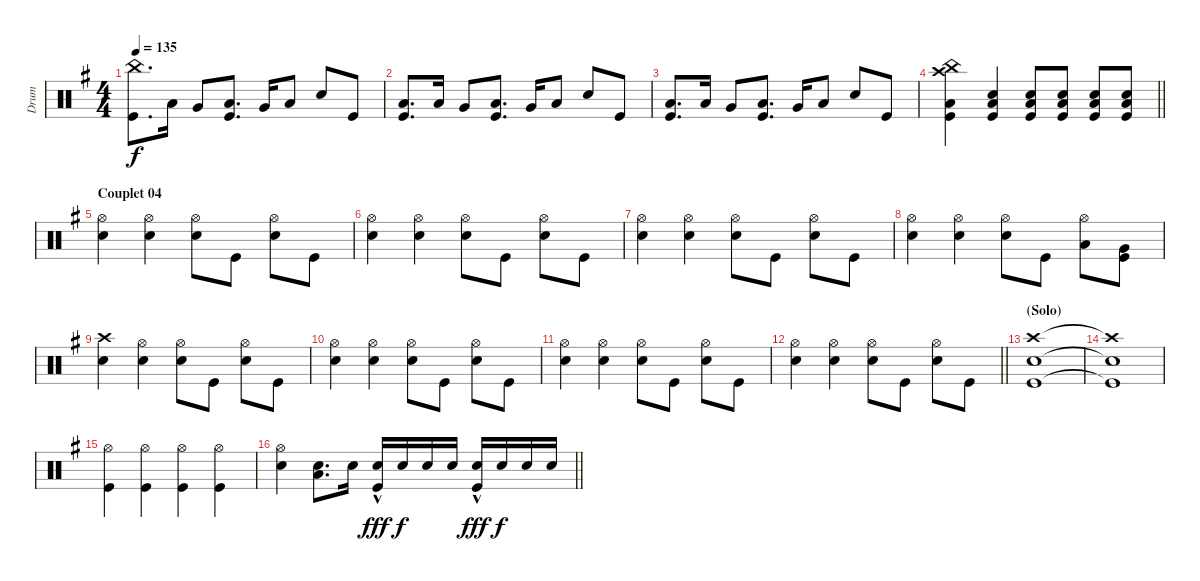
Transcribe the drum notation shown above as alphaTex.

\track ("Drum" "Drum") {instrument percussion}
\staff {score}
\articulation defaults
\ts (4 4)
\tempo 135
\clef neutral
\ks g
("China (hit)" "Kick (hit)").8{d dy f} "Low Tom (hit)".16 "Very Low Tom (hit)".8 ("Low Tom (hit)" "Kick (hit)").8{d} "Very Low Tom (hit)".16 "Low Floor Tom (hit)".8 "Snare (hit) 2".8 "Kick (hit)".8 |
("Low Floor Tom (hit)" "Kick (hit)").8{d} "Low Tom (hit)".16 "Very Low Tom (hit)".8 ("Low Tom (hit)" "Kick (hit)").8{d} "Very Low Tom (hit)".16 "Low Floor Tom (hit)".8 "Snare (hit) 2".8 "Kick (hit)".8 |
("Low Floor Tom (hit)" "Kick (hit)").8{d} "Low Tom (hit)".16 "Very Low Tom (hit)".8 ("Low Tom (hit)" "Kick (hit)").8{d} "Very Low Tom (hit)".16 "Low Floor Tom (hit)".8 "Snare (hit) 2".8 "Kick (hit)".8 |
\barLineRight lightlight
("China (hit)" "Crash high (hit)" "Kick (hit)" "Low Floor Tom (hit)").4 ("Kick (hit)" "Low Floor Tom (hit)" "Snare (hit) 2").4 ("Kick (hit)" "Low Floor Tom (hit)" "Snare (hit) 2").8 ("Kick (hit)" "Low Floor Tom (hit)" "Snare (hit) 2").8 ("Kick (hit)" "Low Floor Tom (hit)" "Snare (hit) 2").8 ("Kick (hit)" "Low Floor Tom (hit)" "Snare (hit) 2").8 |
\section ("" "Couplet 04")
("Hi-Hat (open)" "Snare (hit) 2").4 ("Hi-Hat (open)" "Snare (hit) 2").4 ("Hi-Hat (open)" "Snare (hit) 2").8 "Kick (hit)".8 ("Snare (hit) 2" "Hi-Hat (open)").8 "Kick (hit)".8 |
("Hi-Hat (open)" "Snare (hit) 2").4 ("Hi-Hat (open)" "Snare (hit) 2").4 ("Hi-Hat (open)" "Snare (hit) 2").8 "Kick (hit)".8 ("Snare (hit) 2" "Hi-Hat (open)").8 "Kick (hit)".8 |
("Hi-Hat (open)" "Snare (hit) 2").4 ("Hi-Hat (open)" "Snare (hit) 2").4 ("Hi-Hat (open)" "Snare (hit) 2").8 "Kick (hit)".8 ("Snare (hit) 2" "Hi-Hat (open)").8 "Kick (hit)".8 |
("Hi-Hat (open)" "Snare (hit) 2").4 ("Hi-Hat (open)" "Snare (hit) 2").4 ("Hi-Hat (open)" "Snare (hit) 2").8 "Kick (hit)".8 ("Low Tom (hit)" "Hi-Hat (open)").8 ("Kick (hit)" "Very Low Tom (hit)").8 |
("Crash high (hit)" "Snare (hit) 2").4 ("Hi-Hat (open)" "Snare (hit) 2").4 ("Hi-Hat (open)" "Snare (hit) 2").8 "Kick (hit)".8 ("Snare (hit) 2" "Hi-Hat (open)").8 "Kick (hit)".8 |
("Hi-Hat (open)" "Snare (hit) 2").4 ("Hi-Hat (open)" "Snare (hit) 2").4 ("Hi-Hat (open)" "Snare (hit) 2").8 "Kick (hit)".8 ("Snare (hit) 2" "Hi-Hat (open)").8 "Kick (hit)".8 |
("Hi-Hat (open)" "Snare (hit) 2").4 ("Hi-Hat (open)" "Snare (hit) 2").4 ("Hi-Hat (open)" "Snare (hit) 2").8 "Kick (hit)".8 ("Snare (hit) 2" "Hi-Hat (open)").8 "Kick (hit)".8 |
\barLineRight lightlight
("Hi-Hat (open)" "Snare (hit) 2").4 ("Hi-Hat (open)" "Snare (hit) 2").4 ("Hi-Hat (open)" "Snare (hit) 2").8 "Kick (hit)".8 ("Snare (hit) 2" "Hi-Hat (open)").8 "Kick (hit)".8 |
\section ("" "(Solo)")
("Crash high (hit)" "Snare (hit) 2" "Kick (hit)").1 |
("Crash high (hit)"{t} "Snare (hit) 2"{t} "Kick (hit)"{t}).1 |
("Kick (hit)" "Hi-Hat (open)").4 ("Kick (hit)" "Hi-Hat (open)").4 ("Hi-Hat (open)" "Kick (hit)").4 ("Hi-Hat (open)" "Kick (hit)").4 |
\barLineRight lightlight
("Hi-Hat (open)" "Snare (hit) 2").4 ("Low Floor Tom (hit)" "Snare (hit) 2").8{d} "Snare (hit) 2".16 ("Snare (hit) 2"{hac} "Kick (hit)").16{dy fff} "Snare (hit) 2".16{dy f} "Snare (hit) 2".16 "Snare (hit) 2".16 ("Snare (hit) 2"{hac} "Kick (hit)").16{dy fff} "Snare (hit) 2".16{dy f} "Snare (hit) 2".16 "Snare (hit) 2".16
